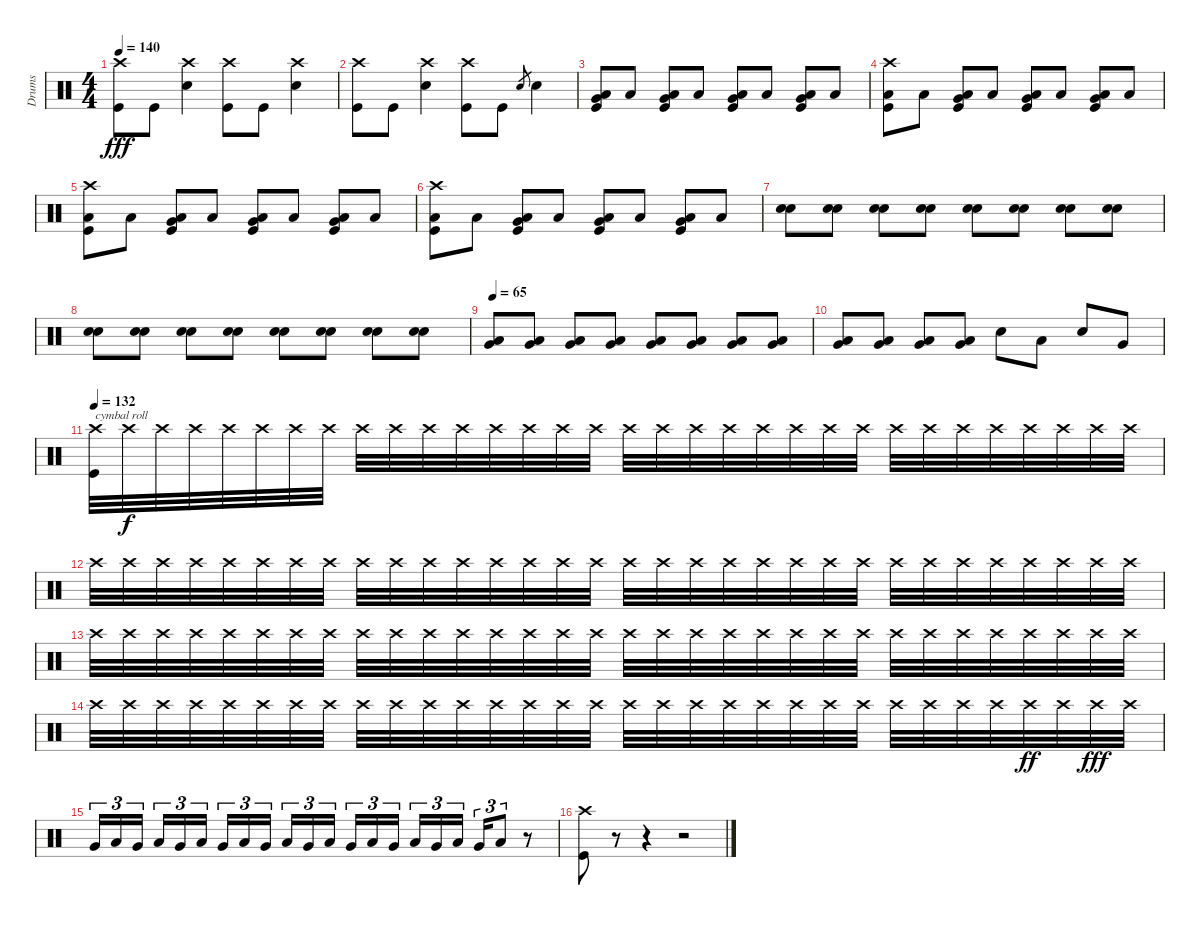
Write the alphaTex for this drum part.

\track ("Drums" "Drums") {instrument percussion}
\staff {score}
\articulation defaults
\ts (4 4)
\tempo 140
\clef neutral
\ks c
("Crash high (hit)" "Kick (hit)").8{dy fff} "Kick (hit)".8 ("Crash high (hit)" "Snare (hit) 2").4 ("Crash high (hit)" "Kick (hit)").8 "Kick (hit)".8 ("Crash high (hit)" "Snare (hit) 2").4 |
("Crash high (hit)" "Kick (hit)").8 "Kick (hit)".8 ("Crash high (hit)" "Snare (hit) 2").4 ("Crash high (hit)" "Kick (hit)").8 "Kick (hit)".8 "Snare (hit) 2".8{gr} "Snare (hit) 2".4 |
("Very Low Tom (hit)" "Low Floor Tom (hit)" "Kick (hit)").8 "Low Floor Tom (hit)".8 ("Very Low Tom (hit)" "Low Floor Tom (hit)" "Kick (hit)").8 "Low Floor Tom (hit)".8 ("Very Low Tom (hit)" "Low Floor Tom (hit)" "Kick (hit)").8 "Low Floor Tom (hit)".8 ("Very Low Tom (hit)" "Low Floor Tom (hit)" "Kick (hit)").8 "Low Floor Tom (hit)".8 |
("Crash high (hit)" "Low Floor Tom (hit)" "Kick (hit)").8 "Low Floor Tom (hit)".8 ("Very Low Tom (hit)" "Low Floor Tom (hit)" "Kick (hit)").8 "Low Floor Tom (hit)".8 ("Very Low Tom (hit)" "Low Floor Tom (hit)" "Kick (hit)").8 "Low Floor Tom (hit)".8 ("Very Low Tom (hit)" "Low Floor Tom (hit)" "Kick (hit)").8 "Low Floor Tom (hit)".8 |
("Crash high (hit)" "Low Floor Tom (hit)" "Kick (hit)").8 "Low Floor Tom (hit)".8 ("Very Low Tom (hit)" "Low Floor Tom (hit)" "Kick (hit)").8 "Low Floor Tom (hit)".8 ("Very Low Tom (hit)" "Low Floor Tom (hit)" "Kick (hit)").8 "Low Floor Tom (hit)".8 ("Very Low Tom (hit)" "Low Floor Tom (hit)" "Kick (hit)").8 "Low Floor Tom (hit)".8 |
("Crash high (hit)" "Low Floor Tom (hit)" "Kick (hit)").8 "Low Floor Tom (hit)".8 ("Very Low Tom (hit)" "Low Floor Tom (hit)" "Kick (hit)").8 "Low Floor Tom (hit)".8 ("Very Low Tom (hit)" "Low Floor Tom (hit)" "Kick (hit)").8 "Low Floor Tom (hit)".8 ("Very Low Tom (hit)" "Low Floor Tom (hit)" "Kick (hit)").8 "Low Floor Tom (hit)".8 |
("Snare (hit) 2" "Snare (hit) 2").8 ("Snare (hit) 2" "Snare (hit) 2").8 ("Snare (hit) 2" "Snare (hit) 2").8 ("Snare (hit) 2" "Snare (hit) 2").8 ("Snare (hit) 2" "Snare (hit) 2").8 ("Snare (hit) 2" "Snare (hit) 2").8 ("Snare (hit) 2" "Snare (hit) 2").8 ("Snare (hit) 2" "Snare (hit) 2").8 |
("Snare (hit) 2" "Snare (hit) 2").8 ("Snare (hit) 2" "Snare (hit) 2").8 ("Snare (hit) 2" "Snare (hit) 2").8 ("Snare (hit) 2" "Snare (hit) 2").8 ("Snare (hit) 2" "Snare (hit) 2").8 ("Snare (hit) 2" "Snare (hit) 2").8 ("Snare (hit) 2" "Snare (hit) 2").8 ("Snare (hit) 2" "Snare (hit) 2").8 |
\tempo 65
("Low Tom (hit)" "Very Low Tom (hit)").8 ("Low Tom (hit)" "Very Low Tom (hit)").8 ("Low Tom (hit)" "Very Low Tom (hit)").8 ("Low Tom (hit)" "Very Low Tom (hit)").8 ("Low Tom (hit)" "Very Low Tom (hit)").8 ("Low Tom (hit)" "Very Low Tom (hit)").8 ("Low Tom (hit)" "Very Low Tom (hit)").8 ("Low Tom (hit)" "Very Low Tom (hit)").8 |
("Low Tom (hit)" "Very Low Tom (hit)").8 ("Low Tom (hit)" "Very Low Tom (hit)").8 ("Low Tom (hit)" "Very Low Tom (hit)").8 ("Low Tom (hit)" "Very Low Tom (hit)").8 "Snare (hit) 2".8 "Low Tom (hit)".8 "Snare (hit) 2".8 "Very Low Tom (hit)".8 |
\tempo 132
("Crash high (hit)" "Kick (hit)").32{txt "cymbal roll"} "Crash high (hit)".32{dy f} "Crash high (hit)".32 "Crash high (hit)".32 "Crash high (hit)".32 "Crash high (hit)".32 "Crash high (hit)".32 "Crash high (hit)".32 "Crash high (hit)".32 "Crash high (hit)".32 "Crash high (hit)".32 "Crash high (hit)".32 "Crash high (hit)".32 "Crash high (hit)".32 "Crash high (hit)".32 "Crash high (hit)".32 "Crash high (hit)".32 "Crash high (hit)".32 "Crash high (hit)".32 "Crash high (hit)".32 "Crash high (hit)".32 "Crash high (hit)".32 "Crash high (hit)".32 "Crash high (hit)".32 "Crash high (hit)".32 "Crash high (hit)".32 "Crash high (hit)".32 "Crash high (hit)".32 "Crash high (hit)".32 "Crash high (hit)".32 "Crash high (hit)".32 "Crash high (hit)".32 |
"Crash high (hit)".32 "Crash high (hit)".32 "Crash high (hit)".32 "Crash high (hit)".32 "Crash high (hit)".32 "Crash high (hit)".32 "Crash high (hit)".32 "Crash high (hit)".32 "Crash high (hit)".32 "Crash high (hit)".32 "Crash high (hit)".32 "Crash high (hit)".32 "Crash high (hit)".32 "Crash high (hit)".32 "Crash high (hit)".32 "Crash high (hit)".32 "Crash high (hit)".32 "Crash high (hit)".32 "Crash high (hit)".32 "Crash high (hit)".32 "Crash high (hit)".32 "Crash high (hit)".32 "Crash high (hit)".32 "Crash high (hit)".32 "Crash high (hit)".32 "Crash high (hit)".32 "Crash high (hit)".32 "Crash high (hit)".32 "Crash high (hit)".32 "Crash high (hit)".32 "Crash high (hit)".32 "Crash high (hit)".32 |
"Crash high (hit)".32 "Crash high (hit)".32 "Crash high (hit)".32 "Crash high (hit)".32 "Crash high (hit)".32 "Crash high (hit)".32 "Crash high (hit)".32 "Crash high (hit)".32 "Crash high (hit)".32 "Crash high (hit)".32 "Crash high (hit)".32 "Crash high (hit)".32 "Crash high (hit)".32 "Crash high (hit)".32 "Crash high (hit)".32 "Crash high (hit)".32 "Crash high (hit)".32 "Crash high (hit)".32 "Crash high (hit)".32 "Crash high (hit)".32 "Crash high (hit)".32 "Crash high (hit)".32 "Crash high (hit)".32 "Crash high (hit)".32 "Crash high (hit)".32 "Crash high (hit)".32 "Crash high (hit)".32 "Crash high (hit)".32 "Crash high (hit)".32 "Crash high (hit)".32 "Crash high (hit)".32 "Crash high (hit)".32 |
"Crash high (hit)".32 "Crash high (hit)".32 "Crash high (hit)".32 "Crash high (hit)".32 "Crash high (hit)".32 "Crash high (hit)".32 "Crash high (hit)".32 "Crash high (hit)".32 "Crash high (hit)".32 "Crash high (hit)".32 "Crash high (hit)".32 "Crash high (hit)".32 "Crash high (hit)".32 "Crash high (hit)".32 "Crash high (hit)".32 "Crash high (hit)".32 "Crash high (hit)".32 "Crash high (hit)".32 "Crash high (hit)".32 "Crash high (hit)".32 "Crash high (hit)".32 "Crash high (hit)".32 "Crash high (hit)".32 "Crash high (hit)".32 "Crash high (hit)".32 "Crash high (hit)".32 "Crash high (hit)".32 "Crash high (hit)".32 "Crash high (hit)".32{dy ff} "Crash high (hit)".32 "Crash high (hit)".32{dy fff} "Crash high (hit)".32 |
"Very Low Tom (hit)".16{tu (3 2)} "Low Tom (hit)".16{tu (3 2)} "Very Low Tom (hit)".16{tu (3 2)} "Low Tom (hit)".16{tu (3 2)} "Very Low Tom (hit)".16{tu (3 2)} "Low Tom (hit)".16{tu (3 2)} "Very Low Tom (hit)".16{tu (3 2)} "Low Tom (hit)".16{tu (3 2)} "Very Low Tom (hit)".16{tu (3 2)} "Low Tom (hit)".16{tu (3 2)} "Very Low Tom (hit)".16{tu (3 2)} "Low Tom (hit)".16{tu (3 2)} "Very Low Tom (hit)".16{tu (3 2)} "Low Tom (hit)".16{tu (3 2)} "Very Low Tom (hit)".16{tu (3 2)} "Low Tom (hit)".16{tu (3 2)} "Very Low Tom (hit)".16{tu (3 2)} "Low Tom (hit)".16{tu (3 2)} "Very Low Tom (hit)".16{tu (3 2)} "Low Tom (hit)".8{tu (3 2)} r.8 |
("Crash high (hit)" "Kick (hit)").8 r.8 r.4 r.2
